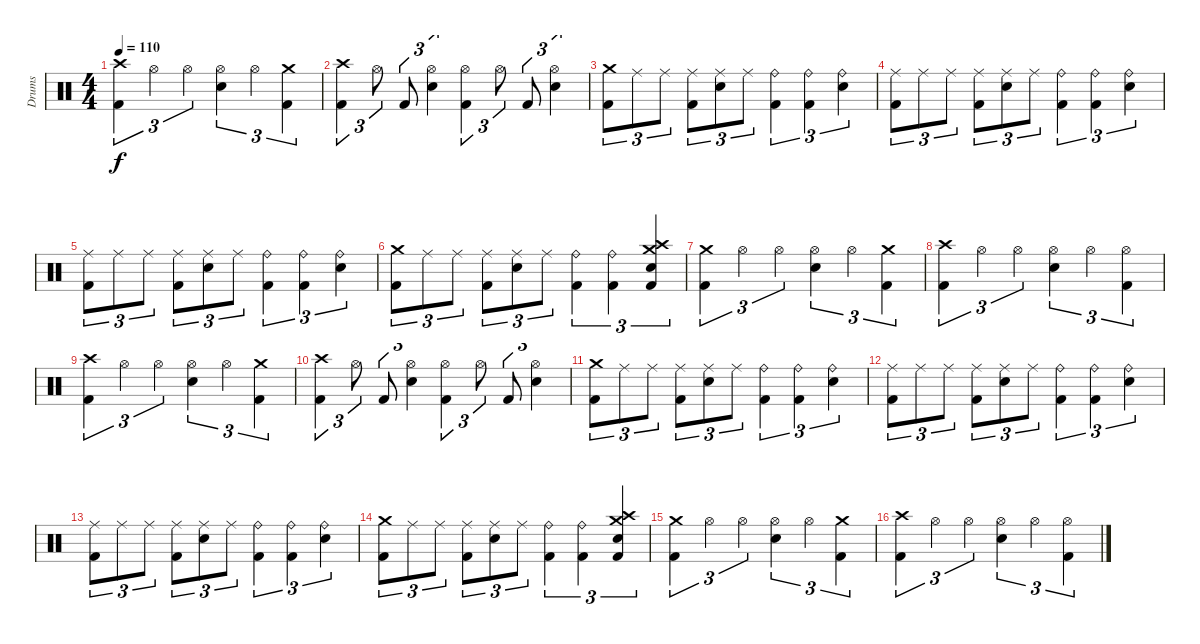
\track ("Drums" "Drums") {instrument percussion}
\staff {score}
\articulation defaults
\ts (4 4)
\tempo 110
\clef neutral
\ks c
("Kick (hit) 2" "Crash high (hit)").4{tu (3 2) dy f} "Hi-Hat (open)".4{tu (3 2)} "Hi-Hat (open)".4{tu (3 2)} ("Snare (hit) 2" "Hi-Hat (open)").4{tu (3 2)} "Hi-Hat (open)".4{tu (3 2)} ("Kick (hit) 2" "Crash medium (hit)").4{tu (3 2)} |
("Kick (hit) 2" "Crash high (hit)").4{tu (3 2)} "Hi-Hat (open)".8{tu (3 2)} "Kick (hit) 2".8{tu (3 2)} ("Electric Snare (hit)" "Hi-Hat (open)").4{tu (3 2)} ("Kick (hit) 2" "Hi-Hat (open)").4{tu (3 2)} "Hi-Hat (open)".8{tu (3 2)} "Kick (hit) 2".8{tu (3 2)} ("Electric Snare (hit)" "Hi-Hat (open)").4{tu (3 2)} |
("Kick (hit) 2" "Crash medium (hit)").8{tu (3 2) volume 8} "Ride (middle)".8{tu (3 2)} "Ride (middle)".8{tu (3 2)} ("Kick (hit) 2" "Ride (middle)").8{tu (3 2)} ("Electric Snare (hit)" "Ride (middle)").8{tu (3 2)} "Ride (middle)".8{tu (3 2)} ("Kick (hit) 2" "Ride (bell)").4{tu (3 2)} ("Kick (hit) 2" "Ride (bell)").4{tu (3 2)} ("Electric Snare (hit)" "Ride (bell)").4{tu (3 2)} |
("Kick (hit) 2" "Ride (middle)").8{tu (3 2)} "Ride (middle)".8{tu (3 2)} "Ride (middle)".8{tu (3 2)} ("Kick (hit) 2" "Ride (middle)").8{tu (3 2)} ("Electric Snare (hit)" "Ride (middle)").8{tu (3 2)} "Ride (middle)".8{tu (3 2)} ("Kick (hit) 2" "Ride (bell)").4{tu (3 2)} ("Kick (hit) 2" "Ride (bell)").4{tu (3 2)} ("Electric Snare (hit)" "Ride (bell)").4{tu (3 2)} |
("Kick (hit) 2" "Ride (middle)").8{tu (3 2)} "Ride (middle)".8{tu (3 2)} "Ride (middle)".8{tu (3 2)} ("Kick (hit) 2" "Ride (middle)").8{tu (3 2)} ("Electric Snare (hit)" "Ride (middle)").8{tu (3 2)} "Ride (middle)".8{tu (3 2)} ("Kick (hit) 2" "Ride (bell)").4{tu (3 2)} ("Kick (hit) 2" "Ride (bell)").4{tu (3 2)} ("Electric Snare (hit)" "Ride (bell)").4{tu (3 2)} |
("Kick (hit) 2" "Crash medium (hit)").8{tu (3 2)} "Ride (middle)".8{tu (3 2)} "Ride (middle)".8{tu (3 2)} ("Kick (hit) 2" "Ride (middle)").8{tu (3 2)} ("Electric Snare (hit)" "Ride (middle)").8{tu (3 2)} "Ride (middle)".8{tu (3 2)} ("Kick (hit) 2" "Ride (bell)").4{tu (3 2)} ("Kick (hit) 2" "Ride (bell)").4{tu (3 2)} ("Kick (hit) 2" "Electric Snare (hit)" "Crash high (hit)" "Crash medium (hit)").4{tu (3 2)} |
("Kick (hit) 2" "Crash medium (hit)").4{tu (3 2) volume 6} "Hi-Hat (open)".4{tu (3 2)} "Hi-Hat (open)".4{tu (3 2)} ("Electric Snare (hit)" "Hi-Hat (open)").4{tu (3 2)} "Hi-Hat (open)".4{tu (3 2)} ("Kick (hit) 2" "Crash medium (hit)").4{tu (3 2)} |
("Kick (hit) 2" "Crash high (hit)").4{tu (3 2)} "Hi-Hat (open)".4{tu (3 2)} "Hi-Hat (open)".4{tu (3 2)} ("Snare (hit) 2" "Hi-Hat (open)").4{tu (3 2)} "Hi-Hat (open)".4{tu (3 2)} ("Kick (hit) 2" "Hi-Hat (open)").4{tu (3 2)} |
("Kick (hit) 2" "Crash high (hit)").4{tu (3 2)} "Hi-Hat (open)".4{tu (3 2)} "Hi-Hat (open)".4{tu (3 2)} ("Snare (hit) 2" "Hi-Hat (open)").4{tu (3 2)} "Hi-Hat (open)".4{tu (3 2)} ("Kick (hit) 2" "Crash medium (hit)").4{tu (3 2)} |
("Kick (hit) 2" "Crash high (hit)").4{tu (3 2)} "Hi-Hat (open)".8{tu (3 2)} "Kick (hit) 2".8{tu (3 2)} ("Electric Snare (hit)" "Hi-Hat (open)").4{tu (3 2)} ("Kick (hit) 2" "Hi-Hat (open)").4{tu (3 2)} "Hi-Hat (open)".8{tu (3 2)} "Kick (hit) 2".8{tu (3 2)} ("Electric Snare (hit)" "Hi-Hat (open)").4{tu (3 2)} |
("Kick (hit) 2" "Crash medium (hit)").8{tu (3 2) volume 4} "Ride (middle)".8{tu (3 2)} "Ride (middle)".8{tu (3 2)} ("Kick (hit) 2" "Ride (middle)").8{tu (3 2)} ("Electric Snare (hit)" "Ride (middle)").8{tu (3 2)} "Ride (middle)".8{tu (3 2)} ("Kick (hit) 2" "Ride (bell)").4{tu (3 2)} ("Kick (hit) 2" "Ride (bell)").4{tu (3 2)} ("Electric Snare (hit)" "Ride (bell)").4{tu (3 2)} |
("Kick (hit) 2" "Ride (middle)").8{tu (3 2)} "Ride (middle)".8{tu (3 2)} "Ride (middle)".8{tu (3 2)} ("Kick (hit) 2" "Ride (middle)").8{tu (3 2)} ("Electric Snare (hit)" "Ride (middle)").8{tu (3 2)} "Ride (middle)".8{tu (3 2)} ("Kick (hit) 2" "Ride (bell)").4{tu (3 2)} ("Kick (hit) 2" "Ride (bell)").4{tu (3 2)} ("Electric Snare (hit)" "Ride (bell)").4{tu (3 2)} |
("Kick (hit) 2" "Ride (middle)").8{tu (3 2)} "Ride (middle)".8{tu (3 2)} "Ride (middle)".8{tu (3 2)} ("Kick (hit) 2" "Ride (middle)").8{tu (3 2)} ("Electric Snare (hit)" "Ride (middle)").8{tu (3 2)} "Ride (middle)".8{tu (3 2)} ("Kick (hit) 2" "Ride (bell)").4{tu (3 2)} ("Kick (hit) 2" "Ride (bell)").4{tu (3 2)} ("Electric Snare (hit)" "Ride (bell)").4{tu (3 2)} |
("Kick (hit) 2" "Crash medium (hit)").8{tu (3 2)} "Ride (middle)".8{tu (3 2)} "Ride (middle)".8{tu (3 2)} ("Kick (hit) 2" "Ride (middle)").8{tu (3 2)} ("Electric Snare (hit)" "Ride (middle)").8{tu (3 2)} "Ride (middle)".8{tu (3 2)} ("Kick (hit) 2" "Ride (bell)").4{tu (3 2)} ("Kick (hit) 2" "Ride (bell)").4{tu (3 2)} ("Kick (hit) 2" "Electric Snare (hit)" "Crash high (hit)" "Crash medium (hit)").4{tu (3 2)} |
("Kick (hit) 2" "Crash medium (hit)").4{tu (3 2) volume 2} "Hi-Hat (open)".4{tu (3 2)} "Hi-Hat (open)".4{tu (3 2)} ("Electric Snare (hit)" "Hi-Hat (open)").4{tu (3 2)} "Hi-Hat (open)".4{tu (3 2)} ("Kick (hit) 2" "Crash medium (hit)").4{tu (3 2)} |
("Kick (hit) 2" "Crash high (hit)").4{tu (3 2)} "Hi-Hat (open)".4{tu (3 2)} "Hi-Hat (open)".4{tu (3 2)} ("Snare (hit) 2" "Hi-Hat (open)").4{tu (3 2)} "Hi-Hat (open)".4{tu (3 2)} ("Kick (hit) 2" "Hi-Hat (open)").4{tu (3 2)}
